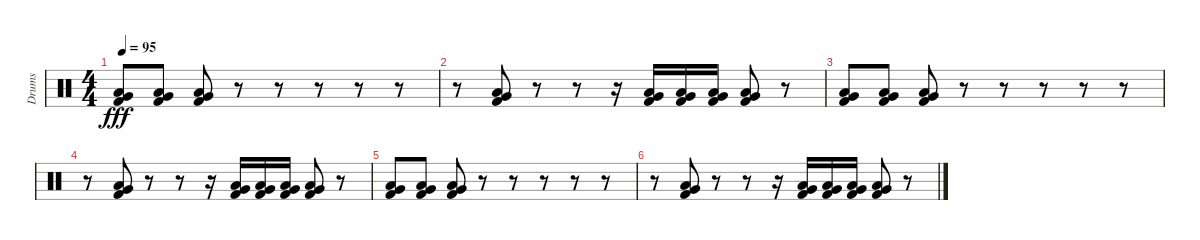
\track ("Drums" "Drums") {instrument percussion}
\staff {score}
\articulation defaults
\ts (4 4)
\tempo 95
\clef neutral
\ks c
("Low Floor Tom (hit)" "Very Low Tom (hit)" "Kick (hit) 2").8{dy fff} ("Low Floor Tom (hit)" "Very Low Tom (hit)" "Kick (hit) 2").8 ("Low Floor Tom (hit)" "Very Low Tom (hit)" "Kick (hit) 2").8 r.8 r.8 r.8 r.8 r.8 |
r.8 ("Low Floor Tom (hit)" "Very Low Tom (hit)" "Kick (hit) 2").8 r.8 r.8 r.16 ("Low Floor Tom (hit)" "Very Low Tom (hit)" "Kick (hit) 2").16 ("Low Floor Tom (hit)" "Very Low Tom (hit)" "Kick (hit) 2").16 ("Low Floor Tom (hit)" "Very Low Tom (hit)" "Kick (hit) 2").16 ("Low Floor Tom (hit)" "Very Low Tom (hit)" "Kick (hit) 2").8 r.8 |
("Low Floor Tom (hit)" "Very Low Tom (hit)" "Kick (hit) 2").8 ("Low Floor Tom (hit)" "Very Low Tom (hit)" "Kick (hit) 2").8 ("Low Floor Tom (hit)" "Very Low Tom (hit)" "Kick (hit) 2").8 r.8 r.8 r.8 r.8 r.8 |
r.8 ("Low Floor Tom (hit)" "Very Low Tom (hit)" "Kick (hit) 2").8 r.8 r.8 r.16 ("Low Floor Tom (hit)" "Very Low Tom (hit)" "Kick (hit) 2").16 ("Low Floor Tom (hit)" "Very Low Tom (hit)" "Kick (hit) 2").16 ("Low Floor Tom (hit)" "Very Low Tom (hit)" "Kick (hit) 2").16 ("Low Floor Tom (hit)" "Very Low Tom (hit)" "Kick (hit) 2").8 r.8 |
("Low Floor Tom (hit)" "Very Low Tom (hit)" "Kick (hit) 2").8 ("Low Floor Tom (hit)" "Very Low Tom (hit)" "Kick (hit) 2").8 ("Low Floor Tom (hit)" "Very Low Tom (hit)" "Kick (hit) 2").8 r.8 r.8 r.8 r.8 r.8 |
r.8 ("Low Floor Tom (hit)" "Very Low Tom (hit)" "Kick (hit) 2").8 r.8 r.8 r.16 ("Low Floor Tom (hit)" "Very Low Tom (hit)" "Kick (hit) 2").16 ("Low Floor Tom (hit)" "Very Low Tom (hit)" "Kick (hit) 2").16 ("Low Floor Tom (hit)" "Very Low Tom (hit)" "Kick (hit) 2").16 ("Low Floor Tom (hit)" "Very Low Tom (hit)" "Kick (hit) 2").8 r.8
